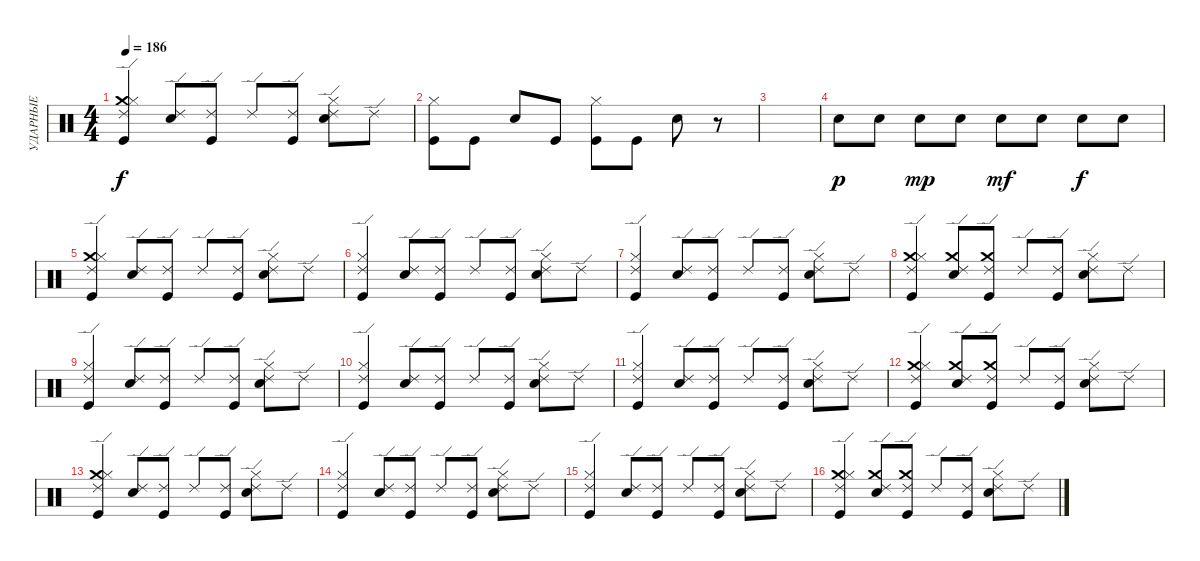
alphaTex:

\track ("УДАРНЫЕ" "УДАРНЫЕ") {instrument percussion}
\staff {score}
\articulation defaults
\ts (4 4)
\tempo 186
\clef neutral
\ks c
("Ride (edge) 2" "Crash medium (hit)" "Hi-Hat (closed)" "Kick (hit)").4{dy f} ("Ride (edge) 2" "Electric Snare (hit)").8 ("Ride (edge) 2" "Kick (hit)").8 "Ride (edge) 2".8 ("Ride (edge) 2" "Kick (hit)").8 ("Ride (edge) 2" "Hi-Hat (closed)" "Electric Snare (hit)").8 "Ride (edge) 2".8 |
("Hi-Hat (closed)" "Kick (hit)").8 "Kick (hit)".8 "Electric Snare (hit)".8 "Kick (hit)".8 ("Hi-Hat (closed)" "Kick (hit)").8 "Kick (hit)".8 "Electric Snare (hit)".8 r.8 |
|
"Electric Snare (hit)".8{dy p} "Electric Snare (hit)".8 "Electric Snare (hit)".8{dy mp} "Electric Snare (hit)".8 "Electric Snare (hit)".8{dy mf} "Electric Snare (hit)".8 "Electric Snare (hit)".8{dy f} "Electric Snare (hit)".8 |
("Ride (edge) 2" "Crash medium (hit)" "Hi-Hat (closed)" "Kick (hit)").4 ("Ride (edge) 2" "Electric Snare (hit)").8 ("Ride (edge) 2" "Kick (hit)").8 "Ride (edge) 2".8 ("Ride (edge) 2" "Kick (hit)").8 ("Ride (edge) 2" "Hi-Hat (closed)" "Electric Snare (hit)").8 "Ride (edge) 2".8 |
("Ride (edge) 2" "Hi-Hat (closed)" "Kick (hit)").4 ("Ride (edge) 2" "Electric Snare (hit)").8 ("Ride (edge) 2" "Kick (hit)").8 "Ride (edge) 2".8 ("Ride (edge) 2" "Kick (hit)").8 ("Ride (edge) 2" "Hi-Hat (closed)" "Electric Snare (hit)").8 "Ride (edge) 2".8 |
("Ride (edge) 2" "Hi-Hat (closed)" "Kick (hit)").4 ("Ride (edge) 2" "Electric Snare (hit)").8 ("Ride (edge) 2" "Kick (hit)").8 "Ride (edge) 2".8 ("Ride (edge) 2" "Kick (hit)").8 ("Ride (edge) 2" "Hi-Hat (closed)" "Electric Snare (hit)").8 "Ride (edge) 2".8 |
("Ride (edge) 2" "Crash medium (hit)" "Hi-Hat (closed)" "Kick (hit)").4 ("Ride (edge) 2" "Crash medium (hit)" "Electric Snare (hit)").8 ("Ride (edge) 2" "Crash medium (hit)" "Kick (hit)").8 "Ride (edge) 2".8 ("Ride (edge) 2" "Kick (hit)").8 ("Ride (edge) 2" "Hi-Hat (closed)" "Electric Snare (hit)").8 "Ride (edge) 2".8 |
("Ride (edge) 2" "Hi-Hat (closed)" "Kick (hit)").4 ("Ride (edge) 2" "Electric Snare (hit)").8 ("Ride (edge) 2" "Kick (hit)").8 "Ride (edge) 2".8 ("Ride (edge) 2" "Kick (hit)").8 ("Ride (edge) 2" "Hi-Hat (closed)" "Electric Snare (hit)").8 "Ride (edge) 2".8 |
("Ride (edge) 2" "Hi-Hat (closed)" "Kick (hit)").4 ("Ride (edge) 2" "Electric Snare (hit)").8 ("Ride (edge) 2" "Kick (hit)").8 "Ride (edge) 2".8 ("Ride (edge) 2" "Kick (hit)").8 ("Ride (edge) 2" "Hi-Hat (closed)" "Electric Snare (hit)").8 "Ride (edge) 2".8 |
("Ride (edge) 2" "Hi-Hat (closed)" "Kick (hit)").4 ("Ride (edge) 2" "Electric Snare (hit)").8 ("Ride (edge) 2" "Kick (hit)").8 "Ride (edge) 2".8 ("Ride (edge) 2" "Kick (hit)").8 ("Ride (edge) 2" "Hi-Hat (closed)" "Electric Snare (hit)").8 "Ride (edge) 2".8 |
("Ride (edge) 2" "Crash medium (hit)" "Hi-Hat (closed)" "Kick (hit)").4 ("Ride (edge) 2" "Crash medium (hit)" "Electric Snare (hit)").8 ("Ride (edge) 2" "Crash medium (hit)" "Kick (hit)").8 "Ride (edge) 2".8 ("Ride (edge) 2" "Kick (hit)").8 ("Ride (edge) 2" "Hi-Hat (closed)" "Electric Snare (hit)").8 "Ride (edge) 2".8 |
("Ride (edge) 2" "Crash medium (hit)" "Hi-Hat (closed)" "Kick (hit)").4 ("Ride (edge) 2" "Electric Snare (hit)").8 ("Ride (edge) 2" "Kick (hit)").8 "Ride (edge) 2".8 ("Ride (edge) 2" "Kick (hit)").8 ("Ride (edge) 2" "Hi-Hat (closed)" "Electric Snare (hit)").8 "Ride (edge) 2".8 |
("Ride (edge) 2" "Hi-Hat (closed)" "Kick (hit)").4 ("Ride (edge) 2" "Electric Snare (hit)").8 ("Ride (edge) 2" "Kick (hit)").8 "Ride (edge) 2".8 ("Ride (edge) 2" "Kick (hit)").8 ("Ride (edge) 2" "Hi-Hat (closed)" "Electric Snare (hit)").8 "Ride (edge) 2".8 |
("Ride (edge) 2" "Hi-Hat (closed)" "Kick (hit)").4 ("Ride (edge) 2" "Electric Snare (hit)").8 ("Ride (edge) 2" "Kick (hit)").8 "Ride (edge) 2".8 ("Ride (edge) 2" "Kick (hit)").8 ("Ride (edge) 2" "Hi-Hat (closed)" "Electric Snare (hit)").8 "Ride (edge) 2".8 |
("Ride (edge) 2" "Crash medium (hit)" "Hi-Hat (closed)" "Kick (hit)").4 ("Ride (edge) 2" "Crash medium (hit)" "Electric Snare (hit)").8 ("Ride (edge) 2" "Crash medium (hit)" "Kick (hit)").8 "Ride (edge) 2".8 ("Ride (edge) 2" "Kick (hit)").8 ("Ride (edge) 2" "Hi-Hat (closed)" "Electric Snare (hit)").8 "Ride (edge) 2".8
